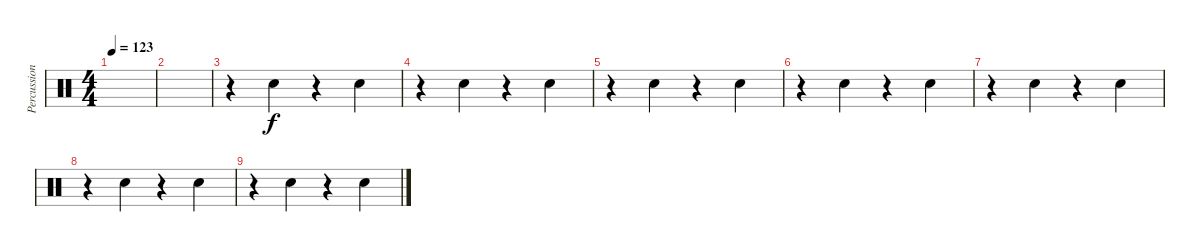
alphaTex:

\track ("Percussion" "Percussion") {instrument percussion}
\staff {score}
\articulation defaults
\ts (4 4)
\tempo 123
\clef neutral
\ks c
|
|
r.4 "Hand Clap (hit)".4 r.4 "Hand Clap (hit)".4 |
r.4 "Hand Clap (hit)".4 r.4 "Hand Clap (hit)".4 |
r.4 "Hand Clap (hit)".4 r.4 "Hand Clap (hit)".4 |
r.4 "Hand Clap (hit)".4 r.4 "Hand Clap (hit)".4 |
r.4 "Hand Clap (hit)".4 r.4 "Hand Clap (hit)".4 |
r.4 "Hand Clap (hit)".4 r.4 "Hand Clap (hit)".4 |
r.4 "Hand Clap (hit)".4 r.4 "Hand Clap (hit)".4
